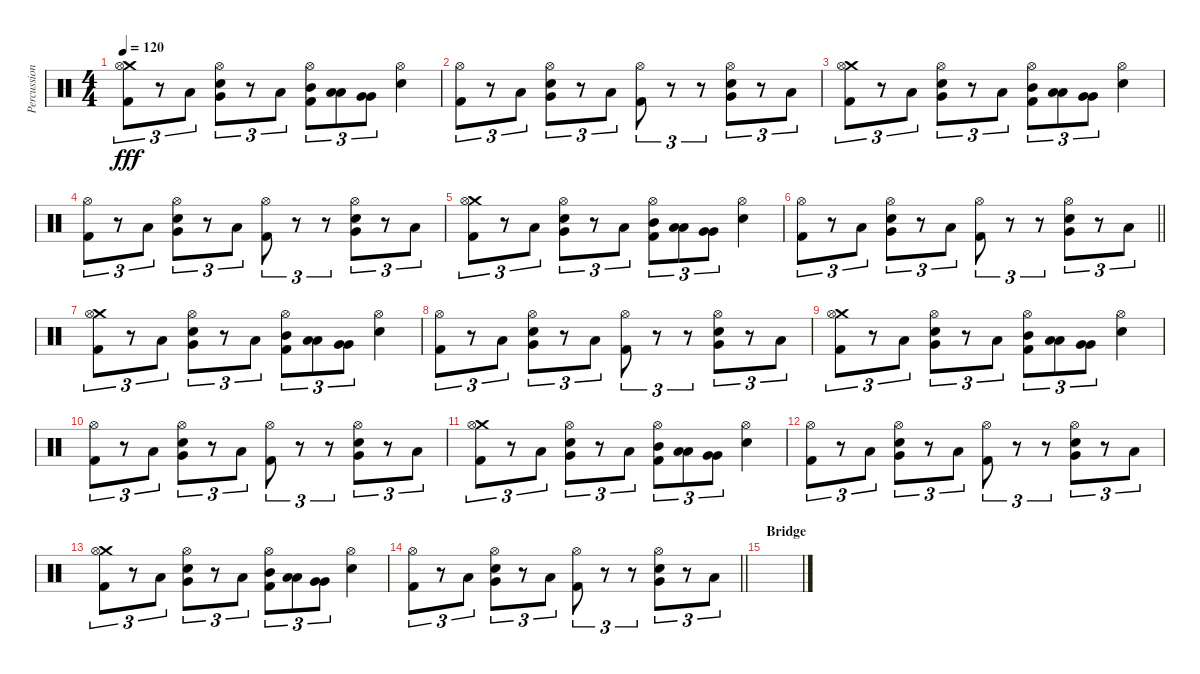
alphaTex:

\track ("Percussion" "Percussion") {instrument percussion}
\staff {score}
\articulation defaults
\ts (4 4)
\tempo 120
\clef neutral
\ks c
("Crash medium (hit)" "Hi-Hat (open)" "Kick (hit) 2").8{tu (3 2) dy fff} r.8{tu (3 2)} "Low Tom (hit)".8{tu (3 2)} ("Very Low Tom (hit)" "Hi-Hat (open)" "Snare (hit) 2").8{tu (3 2)} r.8{tu (3 2)} "Low Tom (hit)".8{tu (3 2)} ("Mid Tom (hit)" "Hi-Hat (open)" "Kick (hit) 2").8{tu (3 2)} ("Low Tom (hit)" "Low Tom (hit)").8{tu (3 2)} ("Very Low Tom (hit)" "Very Low Tom (hit)").8{tu (3 2)} ("Hi-Hat (open)" "Snare (hit) 2").4 |
("Hi-Hat (open)" "Kick (hit) 2").8{tu (3 2)} r.8{tu (3 2)} "Low Tom (hit)".8{tu (3 2)} ("Very Low Tom (hit)" "Hi-Hat (open)" "Snare (hit) 2").8{tu (3 2)} r.8{tu (3 2)} "Low Tom (hit)".8{tu (3 2)} ("Hi-Hat (open)" "Kick (hit) 2").8{tu (3 2)} r.8{tu (3 2)} r.8{tu (3 2)} ("Very Low Tom (hit)" "Hi-Hat (open)" "Snare (hit) 2").8{tu (3 2)} r.8{tu (3 2)} "Low Tom (hit)".8{tu (3 2)} |
("Crash medium (hit)" "Hi-Hat (open)" "Kick (hit) 2").8{tu (3 2)} r.8{tu (3 2)} "Low Tom (hit)".8{tu (3 2)} ("Very Low Tom (hit)" "Hi-Hat (open)" "Snare (hit) 2").8{tu (3 2)} r.8{tu (3 2)} "Low Tom (hit)".8{tu (3 2)} ("Mid Tom (hit)" "Hi-Hat (open)" "Kick (hit) 2").8{tu (3 2)} ("Low Tom (hit)" "Low Tom (hit)").8{tu (3 2)} ("Very Low Tom (hit)" "Very Low Tom (hit)").8{tu (3 2)} ("Hi-Hat (open)" "Snare (hit) 2").4 |
("Hi-Hat (open)" "Kick (hit) 2").8{tu (3 2)} r.8{tu (3 2)} "Low Tom (hit)".8{tu (3 2)} ("Very Low Tom (hit)" "Hi-Hat (open)" "Snare (hit) 2").8{tu (3 2)} r.8{tu (3 2)} "Low Tom (hit)".8{tu (3 2)} ("Hi-Hat (open)" "Kick (hit) 2").8{tu (3 2)} r.8{tu (3 2)} r.8{tu (3 2)} ("Very Low Tom (hit)" "Hi-Hat (open)" "Snare (hit) 2").8{tu (3 2)} r.8{tu (3 2)} "Low Tom (hit)".8{tu (3 2)} |
("Crash medium (hit)" "Hi-Hat (open)" "Kick (hit) 2").8{tu (3 2)} r.8{tu (3 2)} "Low Tom (hit)".8{tu (3 2)} ("Very Low Tom (hit)" "Hi-Hat (open)" "Snare (hit) 2").8{tu (3 2)} r.8{tu (3 2)} "Low Tom (hit)".8{tu (3 2)} ("Mid Tom (hit)" "Hi-Hat (open)" "Kick (hit) 2").8{tu (3 2)} ("Low Tom (hit)" "Low Tom (hit)").8{tu (3 2)} ("Very Low Tom (hit)" "Very Low Tom (hit)").8{tu (3 2)} ("Hi-Hat (open)" "Snare (hit) 2").4 |
\barLineRight lightlight
("Hi-Hat (open)" "Kick (hit) 2").8{tu (3 2)} r.8{tu (3 2)} "Low Tom (hit)".8{tu (3 2)} ("Very Low Tom (hit)" "Hi-Hat (open)" "Snare (hit) 2").8{tu (3 2)} r.8{tu (3 2)} "Low Tom (hit)".8{tu (3 2)} ("Hi-Hat (open)" "Kick (hit) 2").8{tu (3 2)} r.8{tu (3 2)} r.8{tu (3 2)} ("Very Low Tom (hit)" "Hi-Hat (open)" "Snare (hit) 2").8{tu (3 2)} r.8{tu (3 2)} "Low Tom (hit)".8{tu (3 2)} |
\section ("" "")
("Crash medium (hit)" "Hi-Hat (open)" "Kick (hit) 2").8{tu (3 2)} r.8{tu (3 2)} "Low Tom (hit)".8{tu (3 2)} ("Very Low Tom (hit)" "Hi-Hat (open)" "Snare (hit) 2").8{tu (3 2)} r.8{tu (3 2)} "Low Tom (hit)".8{tu (3 2)} ("Mid Tom (hit)" "Hi-Hat (open)" "Kick (hit) 2").8{tu (3 2)} ("Low Tom (hit)" "Low Tom (hit)").8{tu (3 2)} ("Very Low Tom (hit)" "Very Low Tom (hit)").8{tu (3 2)} ("Hi-Hat (open)" "Snare (hit) 2").4 |
("Hi-Hat (open)" "Kick (hit) 2").8{tu (3 2)} r.8{tu (3 2)} "Low Tom (hit)".8{tu (3 2)} ("Very Low Tom (hit)" "Hi-Hat (open)" "Snare (hit) 2").8{tu (3 2)} r.8{tu (3 2)} "Low Tom (hit)".8{tu (3 2)} ("Hi-Hat (open)" "Kick (hit) 2").8{tu (3 2)} r.8{tu (3 2)} r.8{tu (3 2)} ("Very Low Tom (hit)" "Hi-Hat (open)" "Snare (hit) 2").8{tu (3 2)} r.8{tu (3 2)} "Low Tom (hit)".8{tu (3 2)} |
("Crash medium (hit)" "Hi-Hat (open)" "Kick (hit) 2").8{tu (3 2)} r.8{tu (3 2)} "Low Tom (hit)".8{tu (3 2)} ("Very Low Tom (hit)" "Hi-Hat (open)" "Snare (hit) 2").8{tu (3 2)} r.8{tu (3 2)} "Low Tom (hit)".8{tu (3 2)} ("Mid Tom (hit)" "Hi-Hat (open)" "Kick (hit) 2").8{tu (3 2)} ("Low Tom (hit)" "Low Tom (hit)").8{tu (3 2)} ("Very Low Tom (hit)" "Very Low Tom (hit)").8{tu (3 2)} ("Hi-Hat (open)" "Snare (hit) 2").4 |
("Hi-Hat (open)" "Kick (hit) 2").8{tu (3 2)} r.8{tu (3 2)} "Low Tom (hit)".8{tu (3 2)} ("Very Low Tom (hit)" "Hi-Hat (open)" "Snare (hit) 2").8{tu (3 2)} r.8{tu (3 2)} "Low Tom (hit)".8{tu (3 2)} ("Hi-Hat (open)" "Kick (hit) 2").8{tu (3 2)} r.8{tu (3 2)} r.8{tu (3 2)} ("Very Low Tom (hit)" "Hi-Hat (open)" "Snare (hit) 2").8{tu (3 2)} r.8{tu (3 2)} "Low Tom (hit)".8{tu (3 2)} |
("Crash medium (hit)" "Hi-Hat (open)" "Kick (hit) 2").8{tu (3 2)} r.8{tu (3 2)} "Low Tom (hit)".8{tu (3 2)} ("Very Low Tom (hit)" "Hi-Hat (open)" "Snare (hit) 2").8{tu (3 2)} r.8{tu (3 2)} "Low Tom (hit)".8{tu (3 2)} ("Mid Tom (hit)" "Hi-Hat (open)" "Kick (hit) 2").8{tu (3 2)} ("Low Tom (hit)" "Low Tom (hit)").8{tu (3 2)} ("Very Low Tom (hit)" "Very Low Tom (hit)").8{tu (3 2)} ("Hi-Hat (open)" "Snare (hit) 2").4 |
("Hi-Hat (open)" "Kick (hit) 2").8{tu (3 2)} r.8{tu (3 2)} "Low Tom (hit)".8{tu (3 2)} ("Very Low Tom (hit)" "Hi-Hat (open)" "Snare (hit) 2").8{tu (3 2)} r.8{tu (3 2)} "Low Tom (hit)".8{tu (3 2)} ("Hi-Hat (open)" "Kick (hit) 2").8{tu (3 2)} r.8{tu (3 2)} r.8{tu (3 2)} ("Very Low Tom (hit)" "Hi-Hat (open)" "Snare (hit) 2").8{tu (3 2)} r.8{tu (3 2)} "Low Tom (hit)".8{tu (3 2)} |
("Crash medium (hit)" "Hi-Hat (open)" "Kick (hit) 2").8{tu (3 2)} r.8{tu (3 2)} "Low Tom (hit)".8{tu (3 2)} ("Very Low Tom (hit)" "Hi-Hat (open)" "Snare (hit) 2").8{tu (3 2)} r.8{tu (3 2)} "Low Tom (hit)".8{tu (3 2)} ("Mid Tom (hit)" "Hi-Hat (open)" "Kick (hit) 2").8{tu (3 2)} ("Low Tom (hit)" "Low Tom (hit)").8{tu (3 2)} ("Very Low Tom (hit)" "Very Low Tom (hit)").8{tu (3 2)} ("Hi-Hat (open)" "Snare (hit) 2").4 |
\barLineRight lightlight
("Hi-Hat (open)" "Kick (hit) 2").8{tu (3 2)} r.8{tu (3 2)} "Low Tom (hit)".8{tu (3 2)} ("Very Low Tom (hit)" "Hi-Hat (open)" "Snare (hit) 2").8{tu (3 2)} r.8{tu (3 2)} "Low Tom (hit)".8{tu (3 2)} ("Hi-Hat (open)" "Kick (hit) 2").8{tu (3 2)} r.8{tu (3 2)} r.8{tu (3 2)} ("Very Low Tom (hit)" "Hi-Hat (open)" "Snare (hit) 2").8{tu (3 2)} r.8{tu (3 2)} "Low Tom (hit)".8{tu (3 2)} |
\section ("" "Bridge")
